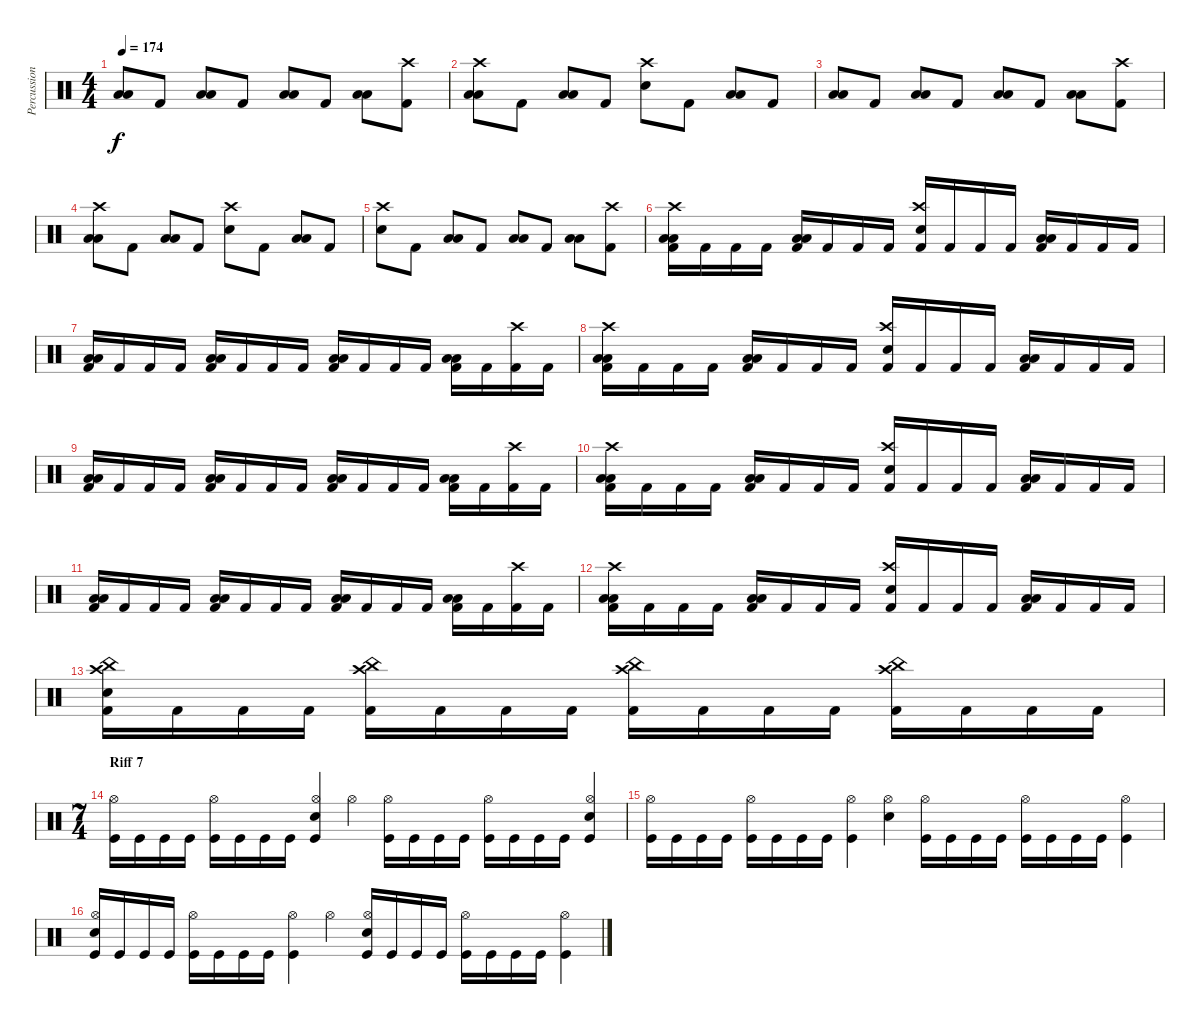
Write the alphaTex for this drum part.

\track ("Percussion" "Percussion") {instrument percussion}
\staff {score}
\articulation defaults
\ts (4 4)
\tempo 174
\clef neutral
\ks c
("Low Tom (hit)" "Low Floor Tom (hit)").8{dy f} "Kick (hit) 2".8 ("Low Tom (hit)" "Low Floor Tom (hit)").8 "Kick (hit) 2".8 ("Low Tom (hit)" "Low Floor Tom (hit)").8 "Kick (hit) 2".8 ("Low Tom (hit)" "Low Tom (hit)").8 ("Crash high (hit)" "Kick (hit) 2").8 |
("Crash high (hit)" "Low Tom (hit)" "Low Floor Tom (hit)").8 "Kick (hit) 2".8 ("Low Tom (hit)" "Low Floor Tom (hit)").8 "Kick (hit) 2".8 ("Crash high (hit)" "Electric Snare (hit)").8 "Kick (hit) 2".8 ("Low Tom (hit)" "Low Tom (hit)").8 "Kick (hit) 2".8 |
("Low Tom (hit)" "Low Floor Tom (hit)").8 "Kick (hit) 2".8 ("Low Tom (hit)" "Low Floor Tom (hit)").8 "Kick (hit) 2".8 ("Low Tom (hit)" "Low Floor Tom (hit)").8 "Kick (hit) 2".8 ("Low Tom (hit)" "Low Tom (hit)").8 ("Crash high (hit)" "Kick (hit) 2").8 |
("Crash high (hit)" "Low Tom (hit)" "Low Floor Tom (hit)").8 "Kick (hit) 2".8 ("Low Tom (hit)" "Low Floor Tom (hit)").8 "Kick (hit) 2".8 ("Crash high (hit)" "Electric Snare (hit)").8 "Kick (hit) 2".8 ("Low Tom (hit)" "Low Tom (hit)").8 "Kick (hit) 2".8 |
("Crash high (hit)" "Electric Snare (hit)").8 "Kick (hit) 2".8 ("Low Tom (hit)" "Low Floor Tom (hit)").8 "Kick (hit) 2".8 ("Low Tom (hit)" "Low Floor Tom (hit)").8 "Kick (hit) 2".8 ("Low Tom (hit)" "Low Tom (hit)").8 ("Crash high (hit)" "Kick (hit) 2").8 |
("Crash high (hit)" "Low Tom (hit)" "Low Floor Tom (hit)" "Kick (hit) 2").16 "Kick (hit) 2".16 "Kick (hit) 2".16 "Kick (hit) 2".16 ("Low Tom (hit)" "Low Floor Tom (hit)" "Kick (hit) 2").16 "Kick (hit) 2".16 "Kick (hit) 2".16 "Kick (hit) 2".16 ("Crash high (hit)" "Electric Snare (hit)" "Kick (hit) 2").16 "Kick (hit) 2".16 "Kick (hit) 2".16 "Kick (hit) 2".16 ("Low Tom (hit)" "Low Floor Tom (hit)" "Kick (hit) 2").16 "Kick (hit) 2".16 "Kick (hit) 2".16 "Kick (hit) 2".16 |
("Low Tom (hit)" "Low Floor Tom (hit)" "Kick (hit) 2").16 "Kick (hit) 2".16 "Kick (hit) 2".16 "Kick (hit) 2".16 ("Low Tom (hit)" "Low Floor Tom (hit)" "Kick (hit) 2").16 "Kick (hit) 2".16 "Kick (hit) 2".16 "Kick (hit) 2".16 ("Low Tom (hit)" "Low Floor Tom (hit)" "Kick (hit) 2").16 "Kick (hit) 2".16 "Kick (hit) 2".16 "Kick (hit) 2".16 ("Low Tom (hit)" "Low Floor Tom (hit)" "Kick (hit) 2").16 "Kick (hit) 2".16 ("Crash high (hit)" "Kick (hit) 2").16 "Kick (hit) 2".16 |
("Crash high (hit)" "Low Tom (hit)" "Low Floor Tom (hit)" "Kick (hit) 2").16 "Kick (hit) 2".16 "Kick (hit) 2".16 "Kick (hit) 2".16 ("Low Tom (hit)" "Low Floor Tom (hit)" "Kick (hit) 2").16 "Kick (hit) 2".16 "Kick (hit) 2".16 "Kick (hit) 2".16 ("Crash high (hit)" "Electric Snare (hit)" "Kick (hit) 2").16 "Kick (hit) 2".16 "Kick (hit) 2".16 "Kick (hit) 2".16 ("Low Tom (hit)" "Low Floor Tom (hit)" "Kick (hit) 2").16 "Kick (hit) 2".16 "Kick (hit) 2".16 "Kick (hit) 2".16 |
("Low Tom (hit)" "Low Floor Tom (hit)" "Kick (hit) 2").16 "Kick (hit) 2".16 "Kick (hit) 2".16 "Kick (hit) 2".16 ("Low Tom (hit)" "Low Floor Tom (hit)" "Kick (hit) 2").16 "Kick (hit) 2".16 "Kick (hit) 2".16 "Kick (hit) 2".16 ("Low Tom (hit)" "Low Floor Tom (hit)" "Kick (hit) 2").16 "Kick (hit) 2".16 "Kick (hit) 2".16 "Kick (hit) 2".16 ("Low Tom (hit)" "Low Floor Tom (hit)" "Kick (hit) 2").16 "Kick (hit) 2".16 ("Crash high (hit)" "Kick (hit) 2").16 "Kick (hit) 2".16 |
("Crash high (hit)" "Low Tom (hit)" "Low Floor Tom (hit)" "Kick (hit) 2").16 "Kick (hit) 2".16 "Kick (hit) 2".16 "Kick (hit) 2".16 ("Low Tom (hit)" "Low Floor Tom (hit)" "Kick (hit) 2").16 "Kick (hit) 2".16 "Kick (hit) 2".16 "Kick (hit) 2".16 ("Crash high (hit)" "Electric Snare (hit)" "Kick (hit) 2").16 "Kick (hit) 2".16 "Kick (hit) 2".16 "Kick (hit) 2".16 ("Low Tom (hit)" "Low Floor Tom (hit)" "Kick (hit) 2").16 "Kick (hit) 2".16 "Kick (hit) 2".16 "Kick (hit) 2".16 |
("Low Tom (hit)" "Low Floor Tom (hit)" "Kick (hit) 2").16 "Kick (hit) 2".16 "Kick (hit) 2".16 "Kick (hit) 2".16 ("Low Tom (hit)" "Low Floor Tom (hit)" "Kick (hit) 2").16 "Kick (hit) 2".16 "Kick (hit) 2".16 "Kick (hit) 2".16 ("Low Tom (hit)" "Low Floor Tom (hit)" "Kick (hit) 2").16 "Kick (hit) 2".16 "Kick (hit) 2".16 "Kick (hit) 2".16 ("Low Tom (hit)" "Low Floor Tom (hit)" "Kick (hit) 2").16 "Kick (hit) 2".16 ("Crash high (hit)" "Kick (hit) 2").16 "Kick (hit) 2".16 |
("Crash high (hit)" "Low Tom (hit)" "Low Floor Tom (hit)" "Kick (hit) 2").16 "Kick (hit) 2".16 "Kick (hit) 2".16 "Kick (hit) 2".16 ("Low Tom (hit)" "Low Floor Tom (hit)" "Kick (hit) 2").16 "Kick (hit) 2".16 "Kick (hit) 2".16 "Kick (hit) 2".16 ("Crash high (hit)" "Electric Snare (hit)" "Kick (hit) 2").16 "Kick (hit) 2".16 "Kick (hit) 2".16 "Kick (hit) 2".16 ("Low Tom (hit)" "Low Floor Tom (hit)" "Kick (hit) 2").16 "Kick (hit) 2".16 "Kick (hit) 2".16 "Kick (hit) 2".16 |
("China (hit)" "Crash high (hit)" "Electric Snare (hit)" "Kick (hit) 2").16 "Kick (hit) 2".16 "Kick (hit) 2".16 "Kick (hit) 2".16 ("China (hit)" "Crash high (hit)" "Kick (hit) 2").16 "Kick (hit) 2".16 "Kick (hit) 2".16 "Kick (hit) 2".16 ("China (hit)" "Crash high (hit)" "Kick (hit) 2").16 "Kick (hit) 2".16 "Kick (hit) 2".16 "Kick (hit) 2".16 ("China (hit)" "Crash high (hit)" "Kick (hit) 2").16 "Kick (hit) 2".16 "Kick (hit) 2".16 "Kick (hit) 2".16 |
\ts (7 4)
\section ("" "Riff 7")
("Hi-Hat (open)" "Kick (hit)").16 "Kick (hit)".16 "Kick (hit)".16 "Kick (hit)".16 ("Hi-Hat (open)" "Kick (hit)").16 "Kick (hit)".16 "Kick (hit)".16 "Kick (hit)".16 ("Hi-Hat (open)" "Electric Snare (hit)" "Kick (hit)").4 "Hi-Hat (open)".4 ("Hi-Hat (open)" "Kick (hit)").16 "Kick (hit)".16 "Kick (hit)".16 "Kick (hit)".16 ("Hi-Hat (open)" "Kick (hit)").16 "Kick (hit)".16 "Kick (hit)".16 "Kick (hit)".16 ("Hi-Hat (open)" "Electric Snare (hit)" "Kick (hit)").4 |
("Hi-Hat (open)" "Kick (hit)").16 "Kick (hit)".16 "Kick (hit)".16 "Kick (hit)".16 ("Hi-Hat (open)" "Kick (hit)").16 "Kick (hit)".16 "Kick (hit)".16 "Kick (hit)".16 ("Hi-Hat (open)" "Kick (hit)").4 ("Hi-Hat (open)" "Electric Snare (hit)").4 ("Hi-Hat (open)" "Kick (hit)").16 "Kick (hit)".16 "Kick (hit)".16 "Kick (hit)".16 ("Hi-Hat (open)" "Kick (hit)").16 "Kick (hit)".16 "Kick (hit)".16 "Kick (hit)".16 ("Hi-Hat (open)" "Kick (hit)").4 |
("Hi-Hat (open)" "Electric Snare (hit)" "Kick (hit)").16 "Kick (hit)".16 "Kick (hit)".16 "Kick (hit)".16 ("Hi-Hat (open)" "Kick (hit)").16 "Kick (hit)".16 "Kick (hit)".16 "Kick (hit)".16 ("Hi-Hat (open)" "Kick (hit)").4 "Hi-Hat (open)".4 ("Hi-Hat (open)" "Electric Snare (hit)" "Kick (hit)").16 "Kick (hit)".16 "Kick (hit)".16 "Kick (hit)".16 ("Hi-Hat (open)" "Kick (hit)").16 "Kick (hit)".16 "Kick (hit)".16 "Kick (hit)".16 ("Hi-Hat (open)" "Kick (hit)").4
